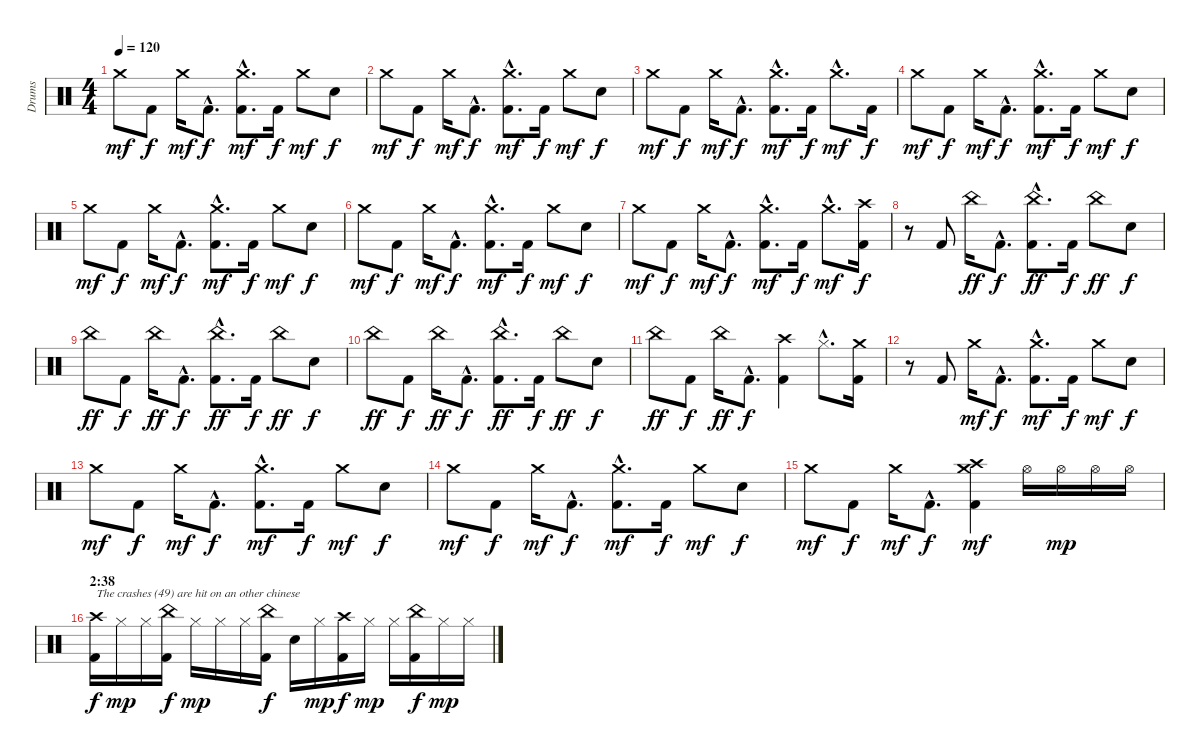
\track ("Drums" "Drums") {instrument percussion}
\staff {score}
\articulation defaults
\ts (4 4)
\tempo 120
\clef neutral
\ks c "Crash medium (hit)".8{dy mf} "Kick (hit) 2".8{dy f} "Crash medium (hit)".16{dy mf} "Kick (hit) 2"{hac}.8{d dy f}
("Crash medium (hit)"{hac} "Kick (hit) 2"{hac}).8{d dy mf} "Kick (hit) 2".16{dy f} "Crash medium (hit)".8{dy mf} "Electric Snare (hit)".8{dy f} |
"Crash medium (hit)".8{dy mf} "Kick (hit) 2".8{dy f} "Crash medium (hit)".16{dy mf} "Kick (hit) 2"{hac}.8{d dy f} ("Crash medium (hit)"{hac} "Kick (hit) 2"{hac}).8{d dy mf} "Kick (hit) 2".16{dy f} "Crash medium (hit)".8{dy mf} "Electric Snare (hit)".8{dy f} |
"Crash medium (hit)".8{dy mf} "Kick (hit) 2".8{dy f} "Crash medium (hit)".16{dy mf} "Kick (hit) 2"{hac}.8{d dy f} ("Crash medium (hit)"{hac} "Kick (hit) 2"{hac}).8{d dy mf} "Kick (hit) 2".16{dy f} "Crash medium (hit)"{hac}.8{d dy mf} "Kick (hit) 2".16{dy f} |
"Crash medium (hit)".8{dy mf} "Kick (hit) 2".8{dy f} "Crash medium (hit)".16{dy mf} "Kick (hit) 2"{hac}.8{d dy f} ("Crash medium (hit)"{hac} "Kick (hit) 2"{hac}).8{d dy mf} "Kick (hit) 2".16{dy f} "Crash medium (hit)".8{dy mf} "Electric Snare (hit)".8{dy f} |
"Crash medium (hit)".8{dy mf} "Kick (hit) 2".8{dy f} "Crash medium (hit)".16{dy mf} "Kick (hit) 2"{hac}.8{d dy f} ("Crash medium (hit)"{hac} "Kick (hit) 2"{hac}).8{d dy mf} "Kick (hit) 2".16{dy f} "Crash medium (hit)".8{dy mf} "Electric Snare (hit)".8{dy f} |
"Crash medium (hit)".8{dy mf} "Kick (hit) 2".8{dy f} "Crash medium (hit)".16{dy mf} "Kick (hit) 2"{hac}.8{d dy f} ("Crash medium (hit)"{hac} "Kick (hit) 2"{hac}).8{d dy mf} "Kick (hit) 2".16{dy f} "Crash medium (hit)".8{dy mf} "Electric Snare (hit)".8{dy f} |
"Crash medium (hit)".8{dy mf} "Kick (hit) 2".8{dy f} "Crash medium (hit)".16{dy mf} "Kick (hit) 2"{hac}.8{d dy f} ("Crash medium (hit)"{hac} "Kick (hit) 2"{hac}).8{d dy mf} "Kick (hit) 2".16{dy f} "Crash medium (hit)"{hac}.8{d dy mf} ("Crash high (hit)" "Kick (hit) 2").16{dy f} |
r.8 "Kick (hit) 2".8 "China (hit)".16{dy ff} "Kick (hit) 2"{hac}.8{d dy f} ("China (hit)"{hac} "Kick (hit) 2"{hac}).8{d dy ff} "Kick (hit) 2".16{dy f} "China (hit)".8{dy ff} "Electric Snare (hit)".8{dy f} |
"China (hit)".8{dy ff} "Kick (hit) 2".8{dy f} "China (hit)".16{dy ff} "Kick (hit) 2"{hac}.8{d dy f} ("China (hit)"{hac} "Kick (hit) 2"{hac}).8{d dy ff} "Kick (hit) 2".16{dy f} "China (hit)".8{dy ff} "Electric Snare (hit)".8{dy f} |
"China (hit)".8{dy ff} "Kick (hit) 2".8{dy f} "China (hit)".16{dy ff} "Kick (hit) 2"{hac}.8{d dy f} ("China (hit)"{hac} "Kick (hit) 2"{hac}).8{d dy ff} "Kick (hit) 2".16{dy f} "China (hit)".8{dy ff} "Electric Snare (hit)".8{dy f} |
"China (hit)".8{dy ff} "Kick (hit) 2".8{dy f} "China (hit)".16{dy ff} "Kick (hit) 2"{hac}.8{d dy f} ("Crash high (hit)" "Kick (hit) 2").4 "Hi-Hat (closed)"{hac}.8{d} ("Crash medium (hit)" "Kick (hit) 2").16 |
r.8 "Kick (hit) 2".8 "Crash medium (hit)".16{dy mf} "Kick (hit) 2"{hac}.8{d dy f} ("Crash medium (hit)"{hac} "Kick (hit) 2"{hac}).8{d dy mf} "Kick (hit) 2".16{dy f} "Crash medium (hit)".8{dy mf} "Electric Snare (hit)".8{dy f} |
"Crash medium (hit)".8{dy mf} "Kick (hit) 2".8{dy f} "Crash medium (hit)".16{dy mf} "Kick (hit) 2"{hac}.8{d dy f} ("Crash medium (hit)"{hac} "Kick (hit) 2"{hac}).8{d dy mf} "Kick (hit) 2".16{dy f} "Crash medium (hit)".8{dy mf} "Electric Snare (hit)".8{dy f} |
"Crash medium (hit)".8{dy mf} "Kick (hit) 2".8{dy f} "Crash medium (hit)".16{dy mf} "Kick (hit) 2"{hac}.8{d dy f} ("Crash medium (hit)"{hac} "Kick (hit) 2"{hac}).8{d dy mf} "Kick (hit) 2".16{dy f} "Crash medium (hit)".8{dy mf} "Electric Snare (hit)".8{dy f} |
"Crash medium (hit)".8{dy mf} "Kick (hit) 2".8{dy f} "Crash medium (hit)".16{dy mf} "Kick (hit) 2"{hac}.8{d dy f} ("Crash medium (hit)" "Crash high (hit)" "Kick (hit) 2").4{dy mf} "Hi-Hat (open)".16 "Hi-Hat (open)".16{dy mp} "Hi-Hat (open)".16 "Hi-Hat (open)".16 |
\section ("" "2:38")
("Crash high (hit)" "Kick (hit) 2").16{txt "The crashes (49) are hit on an other chinese" dy f} "Hi-Hat (closed)".16{dy mp} "Hi-Hat (closed)".16 ("China (hit)" "Kick (hit) 2").16{dy f} "Hi-Hat (closed)".16{dy mp} "Hi-Hat (closed)".16 "Hi-Hat (closed)".16 ("China (hit)" "Kick (hit) 2").16{dy f} "Electric Snare (hit)".16 "Hi-Hat (closed)".16{dy mp} ("Crash high (hit)" "Kick (hit) 2").16{dy f} "Hi-Hat (closed)".16{dy mp} "Hi-Hat (closed)".16 ("China (hit)" "Kick (hit) 2").16{dy f} "Hi-Hat (closed)".16{dy mp} "Hi-Hat (closed)".16
